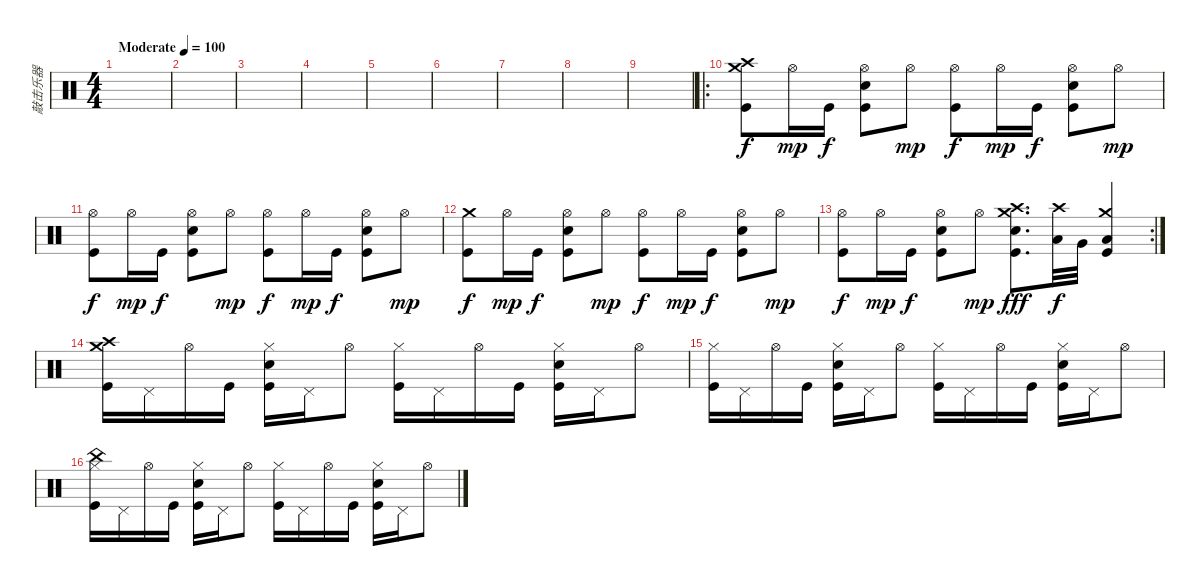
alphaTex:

\track ("敲击乐器" "敲击乐器") {instrument percussion}
\staff {score}
\articulation defaults
\ts (4 4)
\tempo (100 "Moderate")
\clef neutral
\ks c
|
|
|
|
|
|
|
|
|
\ro
("Kick (hit)" "Crash medium (hit)" "Crash high (hit)").8 "Hi-Hat (open)".16{dy mp} "Kick (hit)".16{dy f} ("Snare (hit) 2" "Kick (hit)" "Hi-Hat (open)").8 "Hi-Hat (open)".8{dy mp} ("Kick (hit)" "Hi-Hat (open)").8{dy f} "Hi-Hat (open)".16{dy mp} "Kick (hit)".16{dy f} ("Snare (hit) 2" "Kick (hit)" "Hi-Hat (open)").8 "Hi-Hat (open)".8{dy mp} |
("Hi-Hat (open)" "Kick (hit)").8{dy f} "Hi-Hat (open)".16{dy mp} "Kick (hit)".16{dy f} ("Hi-Hat (open)" "Snare (hit) 2" "Kick (hit)").8 "Hi-Hat (open)".8{dy mp} ("Hi-Hat (open)" "Kick (hit)").8{dy f} "Hi-Hat (open)".16{dy mp} "Kick (hit)".16{dy f} ("Hi-Hat (open)" "Snare (hit) 2" "Kick (hit)").8 "Hi-Hat (open)".8{dy mp} |
("Crash medium (hit)" "Kick (hit)").8{dy f} "Hi-Hat (open)".16{dy mp} "Kick (hit)".16{dy f} ("Snare (hit) 2" "Kick (hit)" "Hi-Hat (open)").8 "Hi-Hat (open)".8{dy mp} ("Kick (hit)" "Hi-Hat (open)").8{dy f} "Hi-Hat (open)".16{dy mp} "Kick (hit)".16{dy f} ("Snare (hit) 2" "Kick (hit)" "Hi-Hat (open)").8 "Hi-Hat (open)".8{dy mp} |
\rc 2
("Kick (hit)" "Hi-Hat (open)").8{dy f} "Hi-Hat (open)".16{dy mp} "Kick (hit)".16{dy f} ("Snare (hit) 2" "Kick (hit)" "Hi-Hat (open)").8 "Hi-Hat (open)".8{dy mp} ("Crash medium (hit)" "Crash high (hit)" "Snare (hit) 2" "Kick (hit)").8{d dy fff} ("Crash high (hit)" "Low Tom (hit)").32{dy f} "Very Low Tom (hit)".32 ("Crash medium (hit)" "Kick (hit)" "Low Floor Tom (hit)").4 |
("Crash medium (hit)" "Crash high (hit)" "Kick (hit)").16 "Pedal Hi-Hat (hit)".16 "Hi-Hat (open)".16 "Kick (hit)".16 ("Hi-Hat (closed)" "Snare (hit) 2" "Kick (hit)").16 "Pedal Hi-Hat (hit)".16 "Hi-Hat (open)".8 ("Hi-Hat (closed)" "Kick (hit)").16 "Pedal Hi-Hat (hit)".16 "Hi-Hat (open)".16 "Kick (hit)".16 ("Hi-Hat (closed)" "Snare (hit) 2" "Kick (hit)").16 "Pedal Hi-Hat (hit)".16 "Hi-Hat (open)".8 |
("Hi-Hat (closed)" "Kick (hit)").16 "Pedal Hi-Hat (hit)".16 "Hi-Hat (open)".16 "Kick (hit)".16 ("Hi-Hat (closed)" "Snare (hit) 2" "Kick (hit)").16 "Pedal Hi-Hat (hit)".16 "Hi-Hat (open)".8 ("Hi-Hat (closed)" "Kick (hit)").16 "Pedal Hi-Hat (hit)".16 "Hi-Hat (open)".16 "Kick (hit)".16 ("Hi-Hat (closed)" "Snare (hit) 2" "Kick (hit)").16 "Pedal Hi-Hat (hit)".16 "Hi-Hat (open)".8 |
("China (hit)" "Hi-Hat (closed)" "Kick (hit)").16 "Pedal Hi-Hat (hit)".16 "Hi-Hat (open)".16 "Kick (hit)".16 ("Hi-Hat (closed)" "Snare (hit) 2" "Kick (hit)").16 "Pedal Hi-Hat (hit)".16 "Hi-Hat (open)".8 ("Hi-Hat (closed)" "Kick (hit)").16 "Pedal Hi-Hat (hit)".16 "Hi-Hat (open)".16 "Kick (hit)".16 ("Hi-Hat (closed)" "Snare (hit) 2" "Kick (hit)").16 "Pedal Hi-Hat (hit)".16 "Hi-Hat (open)".8
